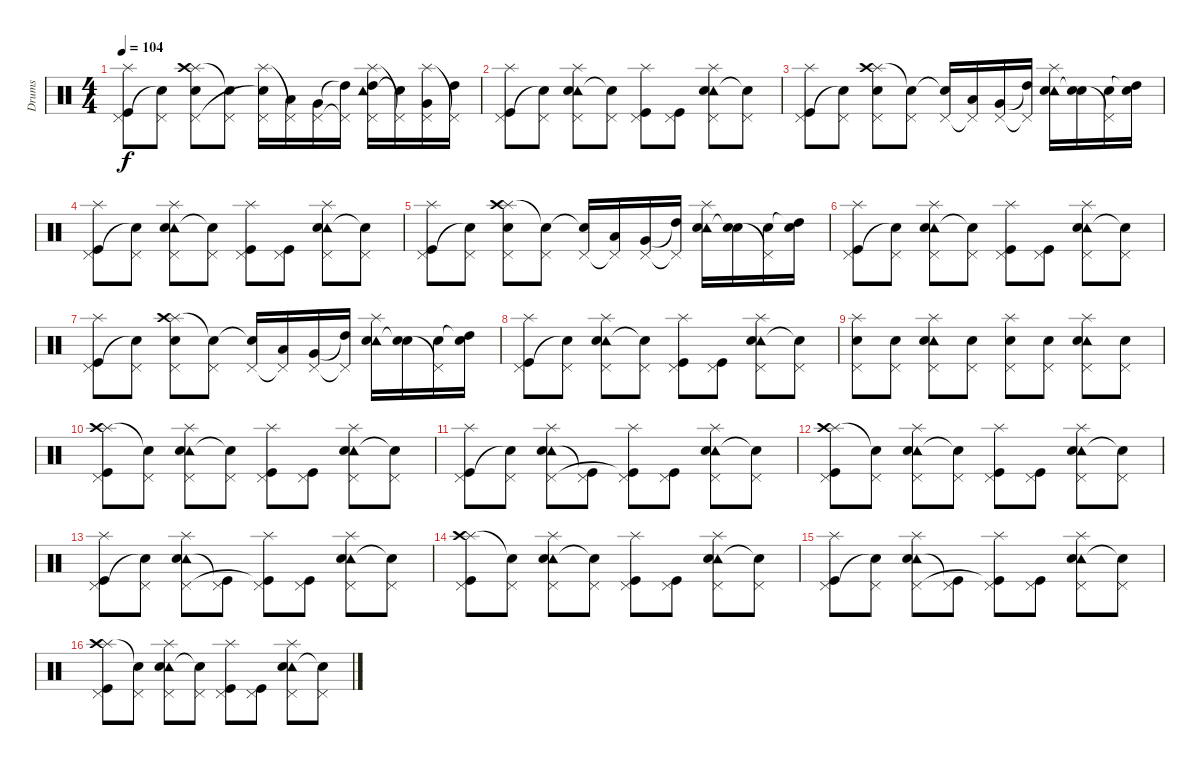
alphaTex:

\track ("Drums" "Drums") {instrument percussion}
\staff {score}
\articulation defaults
\ts (4 4)
\tempo 104
\clef neutral
\ks c
("Splash (hit)" "Pedal Hi-Hat (hit)" "Kick (hit)").8{dy f} ("Pedal Hi-Hat (hit)" "Snare (hit)"{t}).8 ("Splash (hit)" "Crash high (hit)" "Pedal Hi-Hat (hit)" "Snare (hit) 2").8 ("Pedal Hi-Hat (hit)" "Snare (hit)"{t}).8 ("Splash (hit)" "Pedal Hi-Hat (hit)" "Snare (hit)"{t}).16 ("Pedal Hi-Hat (hit)"{t} "Low Tom (hit)").16 ("Pedal Hi-Hat (hit)" "Very Low Tom (hit)").16 ("Pedal Hi-Hat (hit)"{t} "High Tom (hit)"{t}).16 ("Splash (hit)" "Tambourine (hit)" "Pedal Hi-Hat (hit)" "High Tom (hit)").16 ("Pedal Hi-Hat (hit)"{t} "Snare (hit)"{t}).16 ("Splash (hit)" "Pedal Hi-Hat (hit)" "Very Low Tom (hit)").16 ("Pedal Hi-Hat (hit)"{t} "High Tom (hit)").16 |
("Splash (hit)" "Pedal Hi-Hat (hit)" "Kick (hit)").8 ("Pedal Hi-Hat (hit)" "Snare (hit)"{t}).8 ("Splash (hit)" "Tambourine (hit)" "Pedal Hi-Hat (hit)" "Snare (hit) 2").8 ("Pedal Hi-Hat (hit)" "Snare (hit)"{t}).8 ("Splash (hit)" "Pedal Hi-Hat (hit)" "Kick (hit)").8 ("Pedal Hi-Hat (hit)" "Kick (hit)").8 ("Splash (hit)" "Tambourine (hit)" "Pedal Hi-Hat (hit)" "Snare (hit) 2").8 ("Pedal Hi-Hat (hit)" "Snare (hit)"{t}).8 |
("Splash (hit)" "Pedal Hi-Hat (hit)" "Kick (hit)").8 ("Pedal Hi-Hat (hit)" "Snare (hit)"{t}).8 ("Splash (hit)" "Crash high (hit)" "Pedal Hi-Hat (hit)" "Snare (hit) 2").8 ("Pedal Hi-Hat (hit)" "Snare (hit)"{t}).8 ("Pedal Hi-Hat (hit)" "Snare (hit)"{t}).16 ("Pedal Hi-Hat (hit)"{t} "Low Tom (hit)").16 ("Pedal Hi-Hat (hit)" "Very Low Tom (hit)").16 ("Pedal Hi-Hat (hit)"{t} "High Tom (hit)"{t}).16 ("Splash (hit)" "Tambourine (hit)" "Electric Snare (hit)").16 ("Electric Snare (hit)" "Snare (hit)"{t}).16 ("Pedal Hi-Hat (hit)"{t} "Electric Snare (hit)").16 ("Electric Snare (hit)" "High Tom (hit)"{t}).16 |
("Splash (hit)" "Pedal Hi-Hat (hit)" "Kick (hit)").8 ("Pedal Hi-Hat (hit)" "Snare (hit)"{t}).8 ("Splash (hit)" "Tambourine (hit)" "Pedal Hi-Hat (hit)" "Snare (hit) 2").8 ("Pedal Hi-Hat (hit)" "Snare (hit)"{t}).8 ("Splash (hit)" "Pedal Hi-Hat (hit)" "Kick (hit)").8 ("Pedal Hi-Hat (hit)" "Kick (hit)").8 ("Splash (hit)" "Tambourine (hit)" "Pedal Hi-Hat (hit)" "Snare (hit) 2").8 ("Pedal Hi-Hat (hit)" "Snare (hit)"{t}).8 |
("Splash (hit)" "Pedal Hi-Hat (hit)" "Kick (hit)").8 ("Pedal Hi-Hat (hit)" "Snare (hit)"{t}).8 ("Splash (hit)" "Crash high (hit)" "Pedal Hi-Hat (hit)" "Snare (hit) 2").8 ("Pedal Hi-Hat (hit)" "Snare (hit)"{t}).8 ("Pedal Hi-Hat (hit)" "Snare (hit)"{t}).16 ("Pedal Hi-Hat (hit)"{t} "Low Tom (hit)").16 ("Pedal Hi-Hat (hit)" "Very Low Tom (hit)").16 ("Pedal Hi-Hat (hit)"{t} "High Tom (hit)"{t}).16 ("Splash (hit)" "Tambourine (hit)" "Electric Snare (hit)").16 ("Electric Snare (hit)" "Snare (hit)"{t}).16 ("Pedal Hi-Hat (hit)"{t} "Electric Snare (hit)").16 ("Electric Snare (hit)" "High Tom (hit)"{t}).16 |
("Splash (hit)" "Pedal Hi-Hat (hit)" "Kick (hit)").8 ("Pedal Hi-Hat (hit)" "Snare (hit)"{t}).8 ("Splash (hit)" "Tambourine (hit)" "Pedal Hi-Hat (hit)" "Snare (hit) 2").8 ("Pedal Hi-Hat (hit)" "Snare (hit)"{t}).8 ("Splash (hit)" "Pedal Hi-Hat (hit)" "Kick (hit)").8 ("Pedal Hi-Hat (hit)" "Kick (hit)").8 ("Splash (hit)" "Tambourine (hit)" "Pedal Hi-Hat (hit)" "Snare (hit) 2").8 ("Pedal Hi-Hat (hit)" "Snare (hit)"{t}).8 |
("Splash (hit)" "Pedal Hi-Hat (hit)" "Kick (hit)").8 ("Pedal Hi-Hat (hit)" "Snare (hit)"{t}).8 ("Splash (hit)" "Crash high (hit)" "Pedal Hi-Hat (hit)" "Snare (hit) 2").8 ("Pedal Hi-Hat (hit)" "Snare (hit)"{t}).8 ("Pedal Hi-Hat (hit)" "Snare (hit)"{t}).16 ("Pedal Hi-Hat (hit)"{t} "Low Tom (hit)").16 ("Pedal Hi-Hat (hit)" "Very Low Tom (hit)").16 ("Pedal Hi-Hat (hit)"{t} "High Tom (hit)"{t}).16 ("Splash (hit)" "Tambourine (hit)" "Electric Snare (hit)").16 ("Electric Snare (hit)" "Snare (hit)"{t}).16 ("Pedal Hi-Hat (hit)"{t} "Electric Snare (hit)").16 ("Electric Snare (hit)" "High Tom (hit)"{t}).16 |
("Splash (hit)" "Pedal Hi-Hat (hit)" "Kick (hit)").8 ("Pedal Hi-Hat (hit)" "Snare (hit)"{t}).8 ("Splash (hit)" "Tambourine (hit)" "Pedal Hi-Hat (hit)" "Snare (hit) 2").8 ("Pedal Hi-Hat (hit)" "Snare (hit)"{t}).8 ("Splash (hit)" "Pedal Hi-Hat (hit)" "Kick (hit)").8 ("Pedal Hi-Hat (hit)" "Kick (hit)").8 ("Splash (hit)" "Tambourine (hit)" "Pedal Hi-Hat (hit)" "Snare (hit) 2").8 ("Pedal Hi-Hat (hit)" "Snare (hit)"{t}).8 |
("Splash (hit)" "Pedal Hi-Hat (hit)" "Snare (hit) 2").8 ("Pedal Hi-Hat (hit)" "Snare (hit) 2").8 ("Splash (hit)" "Tambourine (hit)" "Pedal Hi-Hat (hit)" "Snare (hit) 2").8 ("Pedal Hi-Hat (hit)" "Snare (hit) 2").8 ("Splash (hit)" "Pedal Hi-Hat (hit)" "Snare (hit) 2").8 ("Pedal Hi-Hat (hit)" "Snare (hit) 2").8 ("Splash (hit)" "Tambourine (hit)" "Pedal Hi-Hat (hit)" "Snare (hit) 2").8 ("Pedal Hi-Hat (hit)" "Snare (hit) 2").8 |
("Splash (hit)" "Crash high (hit)" "Pedal Hi-Hat (hit)" "Kick (hit)").8 ("Pedal Hi-Hat (hit)" "Snare (hit)"{t}).8 ("Splash (hit)" "Tambourine (hit)" "Pedal Hi-Hat (hit)" "Snare (hit) 2").8 ("Pedal Hi-Hat (hit)" "Snare (hit)"{t}).8 ("Splash (hit)" "Pedal Hi-Hat (hit)" "Kick (hit)").8 ("Pedal Hi-Hat (hit)" "Kick (hit)").8 ("Splash (hit)" "Tambourine (hit)" "Pedal Hi-Hat (hit)" "Snare (hit) 2").8 ("Pedal Hi-Hat (hit)" "Snare (hit)"{t}).8 |
("Splash (hit)" "Pedal Hi-Hat (hit)" "Kick (hit)").8 ("Pedal Hi-Hat (hit)" "Snare (hit)"{t}).8 ("Splash (hit)" "Tambourine (hit)" "Pedal Hi-Hat (hit)" "Snare (hit) 2").8 ("Pedal Hi-Hat (hit)" "Kick (hit)"{t}).8 ("Splash (hit)" "Pedal Hi-Hat (hit)" "Kick (hit)"{t}).8 ("Pedal Hi-Hat (hit)" "Kick (hit)").8 ("Splash (hit)" "Tambourine (hit)" "Pedal Hi-Hat (hit)" "Snare (hit) 2").8 ("Pedal Hi-Hat (hit)" "Snare (hit) 2"{t}).8 |
("Splash (hit)" "Crash high (hit)" "Pedal Hi-Hat (hit)" "Kick (hit)").8 ("Pedal Hi-Hat (hit)" "Snare (hit)"{t}).8 ("Splash (hit)" "Tambourine (hit)" "Pedal Hi-Hat (hit)" "Snare (hit) 2").8 ("Pedal Hi-Hat (hit)" "Snare (hit)"{t}).8 ("Splash (hit)" "Pedal Hi-Hat (hit)" "Kick (hit)").8 ("Pedal Hi-Hat (hit)" "Kick (hit)").8 ("Splash (hit)" "Tambourine (hit)" "Pedal Hi-Hat (hit)" "Snare (hit) 2").8 ("Pedal Hi-Hat (hit)" "Snare (hit)"{t}).8 |
("Splash (hit)" "Pedal Hi-Hat (hit)" "Kick (hit)").8 ("Pedal Hi-Hat (hit)" "Snare (hit)"{t}).8 ("Splash (hit)" "Tambourine (hit)" "Pedal Hi-Hat (hit)" "Snare (hit) 2").8 ("Pedal Hi-Hat (hit)" "Kick (hit)"{t}).8 ("Splash (hit)" "Pedal Hi-Hat (hit)" "Kick (hit)"{t}).8 ("Pedal Hi-Hat (hit)" "Kick (hit)").8 ("Splash (hit)" "Tambourine (hit)" "Pedal Hi-Hat (hit)" "Snare (hit) 2").8 ("Pedal Hi-Hat (hit)" "Snare (hit) 2"{t}).8 |
("Splash (hit)" "Crash high (hit)" "Pedal Hi-Hat (hit)" "Kick (hit)").8 ("Pedal Hi-Hat (hit)" "Snare (hit)"{t}).8 ("Splash (hit)" "Tambourine (hit)" "Pedal Hi-Hat (hit)" "Snare (hit) 2").8 ("Pedal Hi-Hat (hit)" "Snare (hit)"{t}).8 ("Splash (hit)" "Pedal Hi-Hat (hit)" "Kick (hit)").8 ("Pedal Hi-Hat (hit)" "Kick (hit)").8 ("Splash (hit)" "Tambourine (hit)" "Pedal Hi-Hat (hit)" "Snare (hit) 2").8 ("Pedal Hi-Hat (hit)" "Snare (hit)"{t}).8 |
("Splash (hit)" "Pedal Hi-Hat (hit)" "Kick (hit)").8 ("Pedal Hi-Hat (hit)" "Snare (hit)"{t}).8 ("Splash (hit)" "Tambourine (hit)" "Pedal Hi-Hat (hit)" "Snare (hit) 2").8 ("Pedal Hi-Hat (hit)" "Kick (hit)"{t}).8 ("Splash (hit)" "Pedal Hi-Hat (hit)" "Kick (hit)"{t}).8 ("Pedal Hi-Hat (hit)" "Kick (hit)").8 ("Splash (hit)" "Tambourine (hit)" "Pedal Hi-Hat (hit)" "Snare (hit) 2").8 ("Pedal Hi-Hat (hit)" "Snare (hit) 2"{t}).8 |
("Splash (hit)" "Crash high (hit)" "Pedal Hi-Hat (hit)" "Kick (hit)").8 ("Pedal Hi-Hat (hit)" "Snare (hit)"{t}).8 ("Splash (hit)" "Tambourine (hit)" "Pedal Hi-Hat (hit)" "Snare (hit) 2").8 ("Pedal Hi-Hat (hit)" "Snare (hit)"{t}).8 ("Splash (hit)" "Pedal Hi-Hat (hit)" "Kick (hit)").8 ("Pedal Hi-Hat (hit)" "Kick (hit)").8 ("Splash (hit)" "Tambourine (hit)" "Pedal Hi-Hat (hit)" "Snare (hit) 2").8 ("Pedal Hi-Hat (hit)" "Snare (hit)"{t}).8
